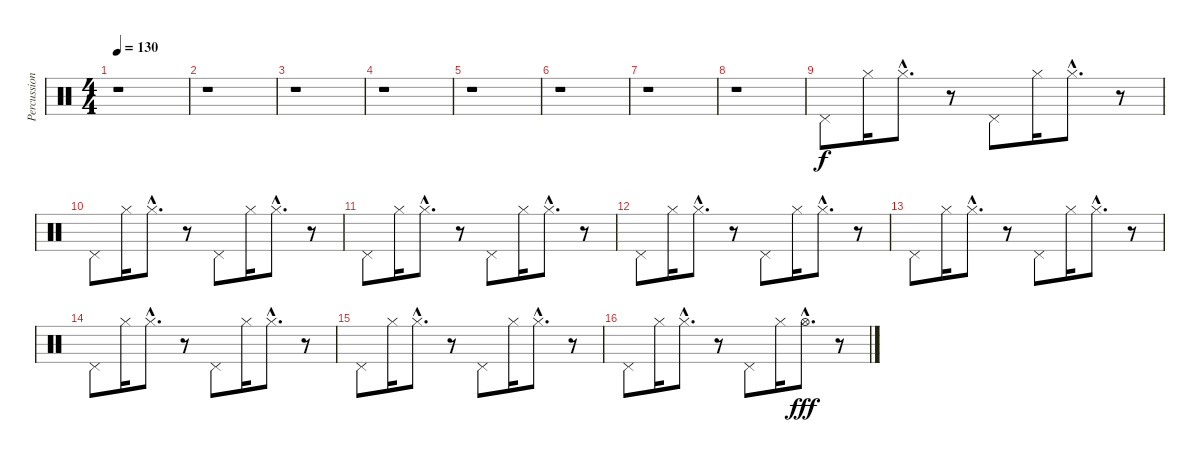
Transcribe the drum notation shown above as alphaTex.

\track ("Percussions" "Percussion") {instrument percussion}
\staff {score}
\articulation defaults
\ts (4 4)
\tempo 130
\clef neutral
\ks c
r.1{dy f} |
r.1 |
r.1 |
r.1 |
r.1 |
r.1 |
r.1 |
r.1 |
"Pedal Hi-Hat (hit)".8 "Hi-Hat (closed)".16 "Hi-Hat (closed)"{hac}.8{d} r.8 "Pedal Hi-Hat (hit)".8 "Hi-Hat (closed)".16 "Hi-Hat (closed)"{hac}.8{d} r.8 |
"Pedal Hi-Hat (hit)".8 "Hi-Hat (closed)".16 "Hi-Hat (closed)"{hac}.8{d} r.8 "Pedal Hi-Hat (hit)".8 "Hi-Hat (closed)".16 "Hi-Hat (closed)"{hac}.8{d} r.8 |
"Pedal Hi-Hat (hit)".8 "Hi-Hat (closed)".16 "Hi-Hat (closed)"{hac}.8{d} r.8 "Pedal Hi-Hat (hit)".8 "Hi-Hat (closed)".16 "Hi-Hat (closed)"{hac}.8{d} r.8 |
"Pedal Hi-Hat (hit)".8 "Hi-Hat (closed)".16 "Hi-Hat (closed)"{hac}.8{d} r.8 "Pedal Hi-Hat (hit)".8 "Hi-Hat (closed)".16 "Hi-Hat (closed)"{hac}.8{d} r.8 |
"Pedal Hi-Hat (hit)".8 "Hi-Hat (closed)".16 "Hi-Hat (closed)"{hac}.8{d} r.8 "Pedal Hi-Hat (hit)".8 "Hi-Hat (closed)".16 "Hi-Hat (closed)"{hac}.8{d} r.8 |
"Pedal Hi-Hat (hit)".8 "Hi-Hat (closed)".16 "Hi-Hat (closed)"{hac}.8{d} r.8 "Pedal Hi-Hat (hit)".8 "Hi-Hat (closed)".16 "Hi-Hat (closed)"{hac}.8{d} r.8 |
"Pedal Hi-Hat (hit)".8 "Hi-Hat (closed)".16 "Hi-Hat (closed)"{hac}.8{d} r.8 "Pedal Hi-Hat (hit)".8 "Hi-Hat (closed)".16 "Hi-Hat (closed)"{hac}.8{d} r.8 |
"Pedal Hi-Hat (hit)".8 "Hi-Hat (closed)".16 "Hi-Hat (closed)"{hac}.8{d} r.8 "Pedal Hi-Hat (hit)".8 "Hi-Hat (closed)".16 "Hi-Hat (open)"{hac}.8{d dy fff} r.8
